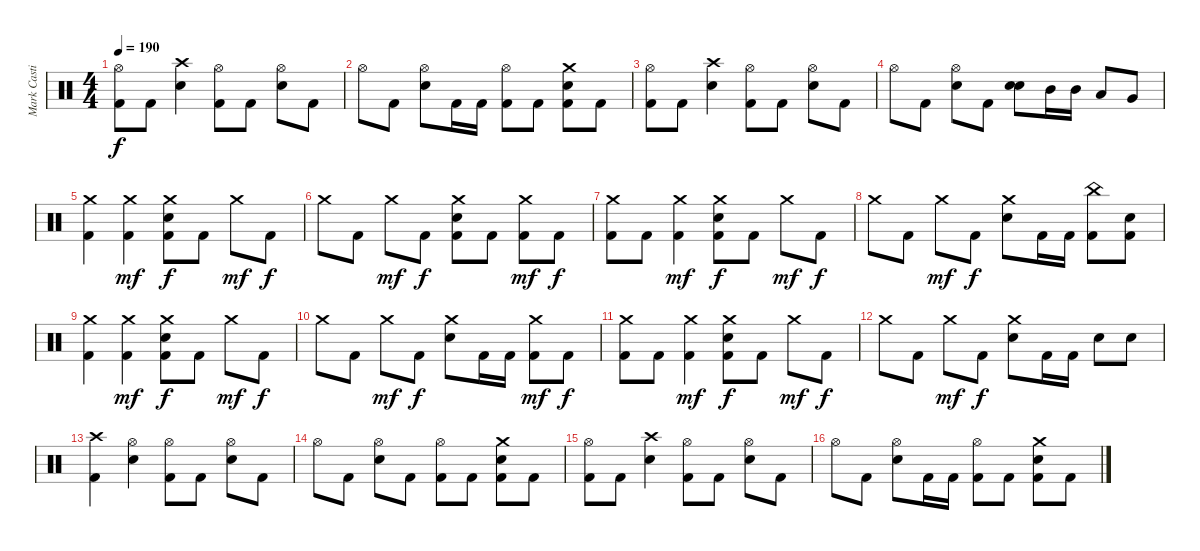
\track ("Mark Castillo" "Mark Casti") {instrument percussion}
\staff {score}
\articulation defaults
\ts (4 4)
\tempo 190
\clef neutral
\ks c
("Hi-Hat (open)" "Kick (hit) 2").8{dy f} "Kick (hit) 2".8 ("Crash high (hit)" "Electric Snare (hit)").4 ("Hi-Hat (open)" "Kick (hit) 2").8 "Kick (hit) 2".8 ("Hi-Hat (open)" "Electric Snare (hit)").8 "Kick (hit) 2".8 |
"Hi-Hat (open)".8 "Kick (hit) 2".8 ("Hi-Hat (open)" "Electric Snare (hit)").8 "Kick (hit) 2".16 "Kick (hit) 2".16 ("Hi-Hat (open)" "Kick (hit) 2").8 "Kick (hit) 2".8 ("Crash medium (hit)" "Electric Snare (hit)" "Kick (hit) 2").8 "Kick (hit) 2".8 |
("Hi-Hat (open)" "Kick (hit) 2").8 "Kick (hit) 2".8 ("Crash high (hit)" "Electric Snare (hit)").4 ("Hi-Hat (open)" "Kick (hit) 2").8 "Kick (hit) 2".8 ("Hi-Hat (open)" "Electric Snare (hit)").8 "Kick (hit) 2".8 |
"Hi-Hat (open)".8 "Kick (hit) 2".8 ("Hi-Hat (open)" "Electric Snare (hit)").8 "Kick (hit) 2".8 ("Electric Snare (hit)" "Electric Snare (hit)").8{bd 120} "Mid Tom (hit)".16 "Mid Tom (hit)".16 "Low Tom (hit)".8 "Very Low Tom (hit)".8 |
("Crash medium (hit)" "Kick (hit) 2").4 ("Crash medium (hit)" "Kick (hit) 2").4{dy mf} ("Crash medium (hit)" "Electric Snare (hit)" "Kick (hit) 2").8{dy f} "Kick (hit) 2".8 "Crash medium (hit)".8{dy mf} "Kick (hit) 2".8{dy f} |
"Crash medium (hit)".8 "Kick (hit) 2".8 "Crash medium (hit)".8{dy mf} "Kick (hit) 2".8{dy f} ("Crash medium (hit)" "Electric Snare (hit)" "Kick (hit) 2").8 "Kick (hit) 2".8 ("Crash medium (hit)" "Kick (hit) 2").8{dy mf} "Kick (hit) 2".8{dy f} |
("Crash medium (hit)" "Kick (hit) 2").8 "Kick (hit) 2".8 ("Crash medium (hit)" "Kick (hit) 2").4{dy mf} ("Crash medium (hit)" "Electric Snare (hit)" "Kick (hit) 2").8{dy f} "Kick (hit) 2".8 "Crash medium (hit)".8{dy mf} "Kick (hit) 2".8{dy f} |
"Crash medium (hit)".8 "Kick (hit) 2".8 "Crash medium (hit)".8{dy mf} "Kick (hit) 2".8{dy f} ("Crash medium (hit)" "Electric Snare (hit)").8 "Kick (hit) 2".16 "Kick (hit) 2".16 ("China (hit)" "Kick (hit) 2").8 ("Electric Snare (hit)" "Kick (hit) 2").8 |
("Crash medium (hit)" "Kick (hit) 2").4 ("Crash medium (hit)" "Kick (hit) 2").4{dy mf} ("Crash medium (hit)" "Electric Snare (hit)" "Kick (hit) 2").8{dy f} "Kick (hit) 2".8 "Crash medium (hit)".8{dy mf} "Kick (hit) 2".8{dy f} |
"Crash medium (hit)".8 "Kick (hit) 2".8 "Crash medium (hit)".8{dy mf} "Kick (hit) 2".8{dy f} ("Crash medium (hit)" "Electric Snare (hit)").8 "Kick (hit) 2".16 "Kick (hit) 2".16 ("Crash medium (hit)" "Kick (hit) 2").8{dy mf} "Kick (hit) 2".8{dy f} |
("Crash medium (hit)" "Kick (hit) 2").8 "Kick (hit) 2".8 ("Crash medium (hit)" "Kick (hit) 2").4{dy mf} ("Crash medium (hit)" "Electric Snare (hit)" "Kick (hit) 2").8{dy f} "Kick (hit) 2".8 "Crash medium (hit)".8{dy mf} "Kick (hit) 2".8{dy f} |
"Crash medium (hit)".8 "Kick (hit) 2".8 "Crash medium (hit)".8{dy mf} "Kick (hit) 2".8{dy f} ("Crash medium (hit)" "Electric Snare (hit)").8 "Kick (hit) 2".16 "Kick (hit) 2".16 "Electric Snare (hit)".8 "Electric Snare (hit)".8 |
("Crash high (hit)" "Kick (hit) 2").4 ("Hi-Hat (open)" "Electric Snare (hit)").4 ("Hi-Hat (open)" "Kick (hit) 2").8 "Kick (hit) 2".8 ("Hi-Hat (open)" "Electric Snare (hit)").8 "Kick (hit) 2".8 |
"Hi-Hat (open)".8 "Kick (hit) 2".8 ("Hi-Hat (open)" "Electric Snare (hit)").8 "Kick (hit) 2".8 ("Hi-Hat (open)" "Kick (hit) 2").8 "Kick (hit) 2".8 ("Crash medium (hit)" "Electric Snare (hit)" "Kick (hit) 2").8 "Kick (hit) 2".8 |
("Hi-Hat (open)" "Kick (hit) 2").8 "Kick (hit) 2".8 ("Crash high (hit)" "Electric Snare (hit)").4 ("Hi-Hat (open)" "Kick (hit) 2").8 "Kick (hit) 2".8 ("Hi-Hat (open)" "Electric Snare (hit)").8 "Kick (hit) 2".8 |
"Hi-Hat (open)".8 "Kick (hit) 2".8 ("Hi-Hat (open)" "Electric Snare (hit)").8 "Kick (hit) 2".16 "Kick (hit) 2".16 ("Hi-Hat (open)" "Kick (hit) 2").8 "Kick (hit) 2".8 ("Crash medium (hit)" "Electric Snare (hit)" "Kick (hit) 2").8 "Kick (hit) 2".8
